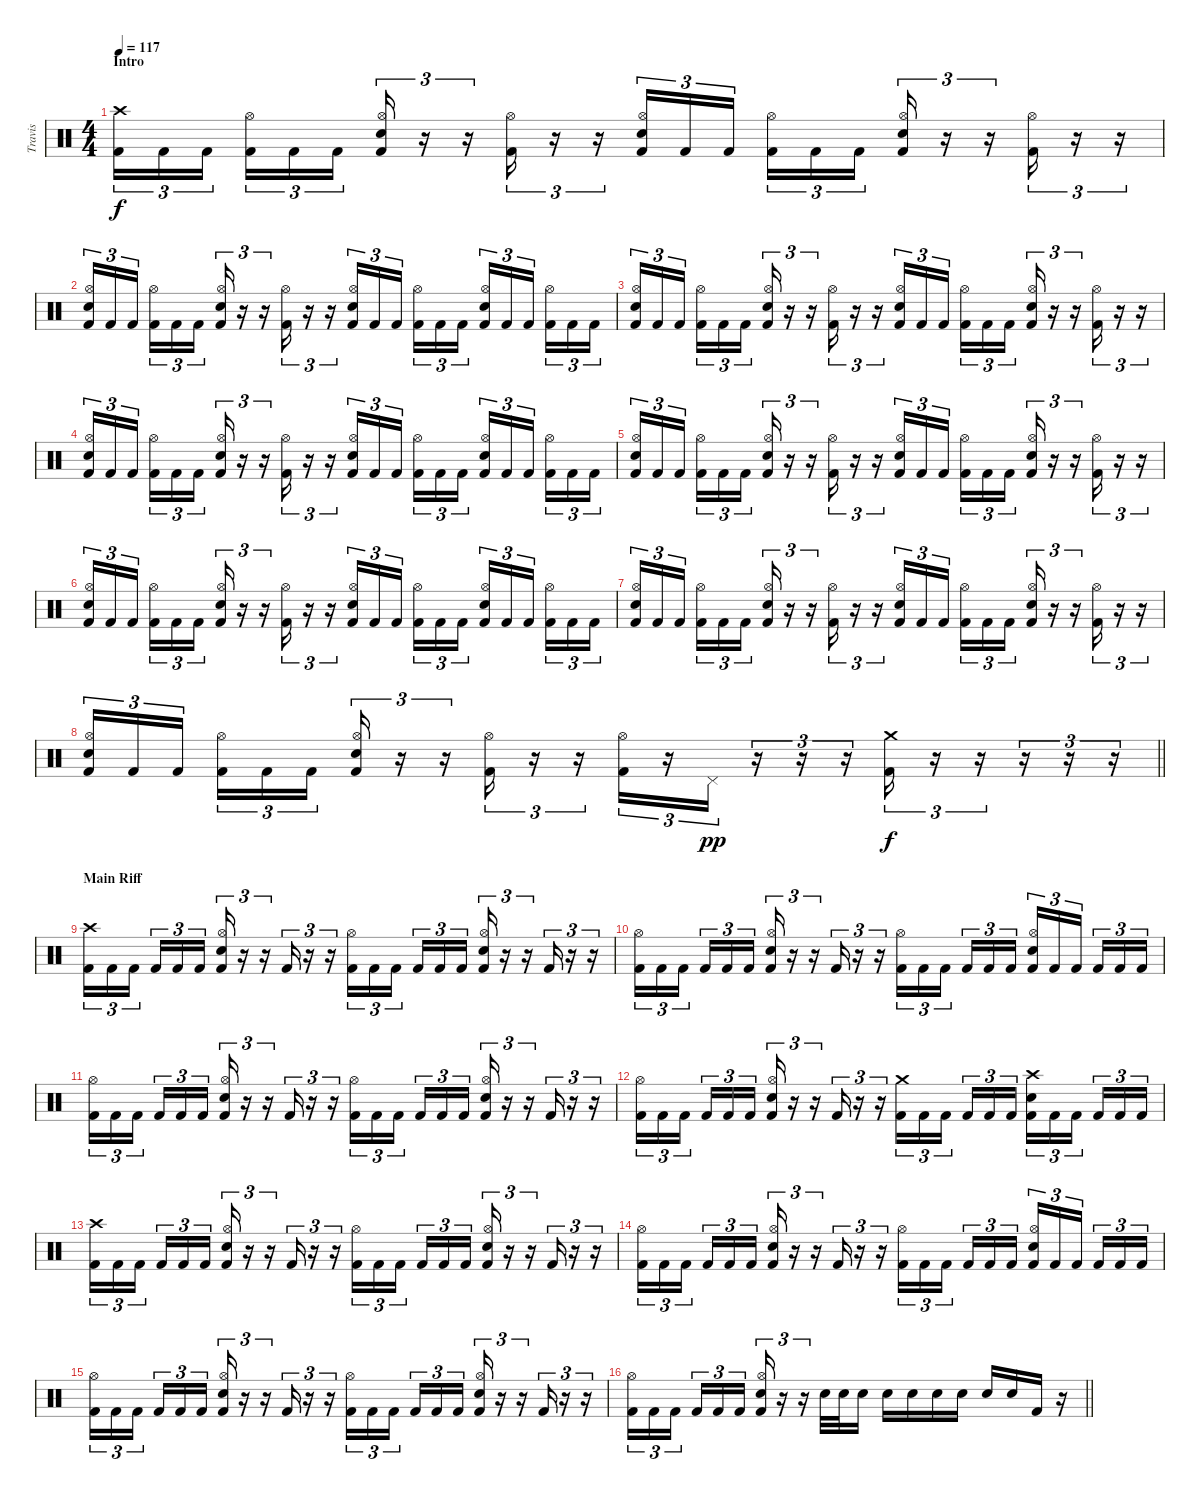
\track ("Travis" "Travis") {instrument percussion}
\staff {score}
\articulation defaults
\ts (4 4)
\section ("" "Intro")
\tempo 117
\clef neutral
\ks c
("Crash high (hit)" "Kick (hit) 2").16{tu (3 2) dy f} "Kick (hit) 2".16{tu (3 2)} "Kick (hit) 2".16{tu (3 2) beam splitsecondary} ("Hi-Hat (open)" "Kick (hit) 2").16{tu (3 2)} "Kick (hit) 2".16{tu (3 2)} "Kick (hit) 2".16{tu (3 2)} ("Hi-Hat (open)" "Electric Snare (hit)" "Kick (hit) 2").16{tu (3 2)} r.16{tu (3 2)} r.16{tu (3 2)} ("Hi-Hat (open)" "Kick (hit) 2").16{tu (3 2)} r.16{tu (3 2)} r.16{tu (3 2)} ("Hi-Hat (open)" "Electric Snare (hit)" "Kick (hit) 2").16{tu (3 2)} "Kick (hit) 2".16{tu (3 2)} "Kick (hit) 2".16{tu (3 2) beam splitsecondary} ("Hi-Hat (open)" "Kick (hit) 2").16{tu (3 2)} "Kick (hit) 2".16{tu (3 2)} "Kick (hit) 2".16{tu (3 2)} ("Hi-Hat (open)" "Electric Snare (hit)" "Kick (hit) 2").16{tu (3 2)} r.16{tu (3 2)} r.16{tu (3 2)} ("Hi-Hat (open)" "Kick (hit) 2").16{tu (3 2)} r.16{tu (3 2)} r.16{tu (3 2)} |
("Hi-Hat (open)" "Electric Snare (hit)" "Kick (hit) 2").16{tu (3 2)} "Kick (hit) 2".16{tu (3 2)} "Kick (hit) 2".16{tu (3 2) beam splitsecondary} ("Hi-Hat (open)" "Kick (hit) 2").16{tu (3 2)} "Kick (hit) 2".16{tu (3 2)} "Kick (hit) 2".16{tu (3 2)} ("Hi-Hat (open)" "Electric Snare (hit)" "Kick (hit) 2").16{tu (3 2)} r.16{tu (3 2)} r.16{tu (3 2)} ("Hi-Hat (open)" "Kick (hit) 2").16{tu (3 2)} r.16{tu (3 2)} r.16{tu (3 2)} ("Hi-Hat (open)" "Electric Snare (hit)" "Kick (hit) 2").16{tu (3 2)} "Kick (hit) 2".16{tu (3 2)} "Kick (hit) 2".16{tu (3 2) beam splitsecondary} ("Hi-Hat (open)" "Kick (hit) 2").16{tu (3 2)} "Kick (hit) 2".16{tu (3 2)} "Kick (hit) 2".16{tu (3 2)} ("Hi-Hat (open)" "Electric Snare (hit)" "Kick (hit) 2").16{tu (3 2)} "Kick (hit) 2".16{tu (3 2)} "Kick (hit) 2".16{tu (3 2) beam splitsecondary} ("Hi-Hat (open)" "Kick (hit) 2").16{tu (3 2)} "Kick (hit) 2".16{tu (3 2)} "Kick (hit) 2".16{tu (3 2)} |
("Hi-Hat (open)" "Electric Snare (hit)" "Kick (hit) 2").16{tu (3 2)} "Kick (hit) 2".16{tu (3 2)} "Kick (hit) 2".16{tu (3 2) beam splitsecondary} ("Hi-Hat (open)" "Kick (hit) 2").16{tu (3 2)} "Kick (hit) 2".16{tu (3 2)} "Kick (hit) 2".16{tu (3 2)} ("Hi-Hat (open)" "Electric Snare (hit)" "Kick (hit) 2").16{tu (3 2)} r.16{tu (3 2)} r.16{tu (3 2)} ("Hi-Hat (open)" "Kick (hit) 2").16{tu (3 2)} r.16{tu (3 2)} r.16{tu (3 2)} ("Hi-Hat (open)" "Electric Snare (hit)" "Kick (hit) 2").16{tu (3 2)} "Kick (hit) 2".16{tu (3 2)} "Kick (hit) 2".16{tu (3 2) beam splitsecondary} ("Hi-Hat (open)" "Kick (hit) 2").16{tu (3 2)} "Kick (hit) 2".16{tu (3 2)} "Kick (hit) 2".16{tu (3 2)} ("Hi-Hat (open)" "Electric Snare (hit)" "Kick (hit) 2").16{tu (3 2)} r.16{tu (3 2)} r.16{tu (3 2)} ("Hi-Hat (open)" "Kick (hit) 2").16{tu (3 2)} r.16{tu (3 2)} r.16{tu (3 2)} |
("Hi-Hat (open)" "Electric Snare (hit)" "Kick (hit) 2").16{tu (3 2)} "Kick (hit) 2".16{tu (3 2)} "Kick (hit) 2".16{tu (3 2) beam splitsecondary} ("Hi-Hat (open)" "Kick (hit) 2").16{tu (3 2)} "Kick (hit) 2".16{tu (3 2)} "Kick (hit) 2".16{tu (3 2)} ("Hi-Hat (open)" "Electric Snare (hit)" "Kick (hit) 2").16{tu (3 2)} r.16{tu (3 2)} r.16{tu (3 2)} ("Hi-Hat (open)" "Kick (hit) 2").16{tu (3 2)} r.16{tu (3 2)} r.16{tu (3 2)} ("Hi-Hat (open)" "Electric Snare (hit)" "Kick (hit) 2").16{tu (3 2)} "Kick (hit) 2".16{tu (3 2)} "Kick (hit) 2".16{tu (3 2) beam splitsecondary} ("Hi-Hat (open)" "Kick (hit) 2").16{tu (3 2)} "Kick (hit) 2".16{tu (3 2)} "Kick (hit) 2".16{tu (3 2)} ("Hi-Hat (open)" "Electric Snare (hit)" "Kick (hit) 2").16{tu (3 2)} "Kick (hit) 2".16{tu (3 2)} "Kick (hit) 2".16{tu (3 2) beam splitsecondary} ("Hi-Hat (open)" "Kick (hit) 2").16{tu (3 2)} "Kick (hit) 2".16{tu (3 2)} "Kick (hit) 2".16{tu (3 2)} |
("Hi-Hat (open)" "Electric Snare (hit)" "Kick (hit) 2").16{tu (3 2)} "Kick (hit) 2".16{tu (3 2)} "Kick (hit) 2".16{tu (3 2) beam splitsecondary} ("Hi-Hat (open)" "Kick (hit) 2").16{tu (3 2)} "Kick (hit) 2".16{tu (3 2)} "Kick (hit) 2".16{tu (3 2)} ("Hi-Hat (open)" "Electric Snare (hit)" "Kick (hit) 2").16{tu (3 2)} r.16{tu (3 2)} r.16{tu (3 2)} ("Hi-Hat (open)" "Kick (hit) 2").16{tu (3 2)} r.16{tu (3 2)} r.16{tu (3 2)} ("Hi-Hat (open)" "Electric Snare (hit)" "Kick (hit) 2").16{tu (3 2)} "Kick (hit) 2".16{tu (3 2)} "Kick (hit) 2".16{tu (3 2) beam splitsecondary} ("Hi-Hat (open)" "Kick (hit) 2").16{tu (3 2)} "Kick (hit) 2".16{tu (3 2)} "Kick (hit) 2".16{tu (3 2)} ("Hi-Hat (open)" "Electric Snare (hit)" "Kick (hit) 2").16{tu (3 2)} r.16{tu (3 2)} r.16{tu (3 2)} ("Hi-Hat (open)" "Kick (hit) 2").16{tu (3 2)} r.16{tu (3 2)} r.16{tu (3 2)} |
("Hi-Hat (open)" "Electric Snare (hit)" "Kick (hit) 2").16{tu (3 2)} "Kick (hit) 2".16{tu (3 2)} "Kick (hit) 2".16{tu (3 2) beam splitsecondary} ("Hi-Hat (open)" "Kick (hit) 2").16{tu (3 2)} "Kick (hit) 2".16{tu (3 2)} "Kick (hit) 2".16{tu (3 2)} ("Hi-Hat (open)" "Electric Snare (hit)" "Kick (hit) 2").16{tu (3 2)} r.16{tu (3 2)} r.16{tu (3 2)} ("Hi-Hat (open)" "Kick (hit) 2").16{tu (3 2)} r.16{tu (3 2)} r.16{tu (3 2)} ("Hi-Hat (open)" "Electric Snare (hit)" "Kick (hit) 2").16{tu (3 2)} "Kick (hit) 2".16{tu (3 2)} "Kick (hit) 2".16{tu (3 2) beam splitsecondary} ("Hi-Hat (open)" "Kick (hit) 2").16{tu (3 2)} "Kick (hit) 2".16{tu (3 2)} "Kick (hit) 2".16{tu (3 2)} ("Hi-Hat (open)" "Electric Snare (hit)" "Kick (hit) 2").16{tu (3 2)} "Kick (hit) 2".16{tu (3 2)} "Kick (hit) 2".16{tu (3 2) beam splitsecondary} ("Hi-Hat (open)" "Kick (hit) 2").16{tu (3 2)} "Kick (hit) 2".16{tu (3 2)} "Kick (hit) 2".16{tu (3 2)} |
("Hi-Hat (open)" "Electric Snare (hit)" "Kick (hit) 2").16{tu (3 2)} "Kick (hit) 2".16{tu (3 2)} "Kick (hit) 2".16{tu (3 2) beam splitsecondary} ("Hi-Hat (open)" "Kick (hit) 2").16{tu (3 2)} "Kick (hit) 2".16{tu (3 2)} "Kick (hit) 2".16{tu (3 2)} ("Hi-Hat (open)" "Electric Snare (hit)" "Kick (hit) 2").16{tu (3 2)} r.16{tu (3 2)} r.16{tu (3 2)} ("Hi-Hat (open)" "Kick (hit) 2").16{tu (3 2)} r.16{tu (3 2)} r.16{tu (3 2)} ("Hi-Hat (open)" "Electric Snare (hit)" "Kick (hit) 2").16{tu (3 2)} "Kick (hit) 2".16{tu (3 2)} "Kick (hit) 2".16{tu (3 2) beam splitsecondary} ("Hi-Hat (open)" "Kick (hit) 2").16{tu (3 2)} "Kick (hit) 2".16{tu (3 2)} "Kick (hit) 2".16{tu (3 2)} ("Hi-Hat (open)" "Electric Snare (hit)" "Kick (hit) 2").16{tu (3 2)} r.16{tu (3 2)} r.16{tu (3 2)} ("Hi-Hat (open)" "Kick (hit) 2").16{tu (3 2)} r.16{tu (3 2)} r.16{tu (3 2)} |
\barLineRight lightlight
("Hi-Hat (open)" "Electric Snare (hit)" "Kick (hit) 2").16{tu (3 2)} "Kick (hit) 2".16{tu (3 2)} "Kick (hit) 2".16{tu (3 2) beam splitsecondary} ("Hi-Hat (open)" "Kick (hit) 2").16{tu (3 2)} "Kick (hit) 2".16{tu (3 2)} "Kick (hit) 2".16{tu (3 2)} ("Hi-Hat (open)" "Electric Snare (hit)" "Kick (hit) 2").16{tu (3 2)} r.16{tu (3 2)} r.16{tu (3 2)} ("Hi-Hat (open)" "Kick (hit) 2").16{tu (3 2)} r.16{tu (3 2)} r.16{tu (3 2)} ("Hi-Hat (open)" "Kick (hit) 2").16{tu (3 2)} r.16{tu (3 2)} "Pedal Hi-Hat (hit)".16{tu (3 2) dy pp} r.16{tu (3 2)} r.16{tu (3 2)} r.16{tu (3 2)} ("Crash medium (hit)" "Kick (hit) 2").16{tu (3 2) dy f} r.16{tu (3 2)} r.16{tu (3 2)} r.16{tu (3 2)} r.16{tu (3 2)} r.16{tu (3 2)} |
\section ("" "Main Riff")
("Crash high (hit)" "Kick (hit) 2").16{tu (3 2)} "Kick (hit) 2".16{tu (3 2)} "Kick (hit) 2".16{tu (3 2) beam splitsecondary} "Kick (hit) 2".16{tu (3 2)} "Kick (hit) 2".16{tu (3 2)} "Kick (hit) 2".16{tu (3 2)} ("Hi-Hat (open)" "Electric Snare (hit)" "Kick (hit) 2").16{tu (3 2)} r.16{tu (3 2)} r.16{tu (3 2)} "Kick (hit) 2".16{tu (3 2)} r.16{tu (3 2)} r.16{tu (3 2)} ("Hi-Hat (open)" "Kick (hit) 2").16{tu (3 2)} "Kick (hit) 2".16{tu (3 2)} "Kick (hit) 2".16{tu (3 2) beam splitsecondary} "Kick (hit) 2".16{tu (3 2)} "Kick (hit) 2".16{tu (3 2)} "Kick (hit) 2".16{tu (3 2)} ("Hi-Hat (open)" "Electric Snare (hit)" "Kick (hit) 2").16{tu (3 2)} r.16{tu (3 2)} r.16{tu (3 2)} "Kick (hit) 2".16{tu (3 2)} r.16{tu (3 2)} r.16{tu (3 2)} |
("Hi-Hat (open)" "Kick (hit) 2").16{tu (3 2)} "Kick (hit) 2".16{tu (3 2)} "Kick (hit) 2".16{tu (3 2) beam splitsecondary} "Kick (hit) 2".16{tu (3 2)} "Kick (hit) 2".16{tu (3 2)} "Kick (hit) 2".16{tu (3 2)} ("Hi-Hat (open)" "Electric Snare (hit)" "Kick (hit) 2").16{tu (3 2)} r.16{tu (3 2)} r.16{tu (3 2)} "Kick (hit) 2".16{tu (3 2)} r.16{tu (3 2)} r.16{tu (3 2)} ("Hi-Hat (open)" "Kick (hit) 2").16{tu (3 2)} "Kick (hit) 2".16{tu (3 2)} "Kick (hit) 2".16{tu (3 2) beam splitsecondary} "Kick (hit) 2".16{tu (3 2)} "Kick (hit) 2".16{tu (3 2)} "Kick (hit) 2".16{tu (3 2)} ("Hi-Hat (open)" "Electric Snare (hit)" "Kick (hit) 2").16{tu (3 2)} "Kick (hit) 2".16{tu (3 2)} "Kick (hit) 2".16{tu (3 2) beam splitsecondary} "Kick (hit) 2".16{tu (3 2)} "Kick (hit) 2".16{tu (3 2)} "Kick (hit) 2".16{tu (3 2)} |
("Hi-Hat (open)" "Kick (hit) 2").16{tu (3 2)} "Kick (hit) 2".16{tu (3 2)} "Kick (hit) 2".16{tu (3 2) beam splitsecondary} "Kick (hit) 2".16{tu (3 2)} "Kick (hit) 2".16{tu (3 2)} "Kick (hit) 2".16{tu (3 2)} ("Hi-Hat (open)" "Electric Snare (hit)" "Kick (hit) 2").16{tu (3 2)} r.16{tu (3 2)} r.16{tu (3 2)} "Kick (hit) 2".16{tu (3 2)} r.16{tu (3 2)} r.16{tu (3 2)} ("Hi-Hat (open)" "Kick (hit) 2").16{tu (3 2)} "Kick (hit) 2".16{tu (3 2)} "Kick (hit) 2".16{tu (3 2) beam splitsecondary} "Kick (hit) 2".16{tu (3 2)} "Kick (hit) 2".16{tu (3 2)} "Kick (hit) 2".16{tu (3 2)} ("Hi-Hat (open)" "Electric Snare (hit)" "Kick (hit) 2").16{tu (3 2)} r.16{tu (3 2)} r.16{tu (3 2)} "Kick (hit) 2".16{tu (3 2)} r.16{tu (3 2)} r.16{tu (3 2)} |
("Hi-Hat (open)" "Kick (hit) 2").16{tu (3 2)} "Kick (hit) 2".16{tu (3 2)} "Kick (hit) 2".16{tu (3 2) beam splitsecondary} "Kick (hit) 2".16{tu (3 2)} "Kick (hit) 2".16{tu (3 2)} "Kick (hit) 2".16{tu (3 2)} ("Hi-Hat (open)" "Electric Snare (hit)" "Kick (hit) 2").16{tu (3 2)} r.16{tu (3 2)} r.16{tu (3 2)} "Kick (hit) 2".16{tu (3 2)} r.16{tu (3 2)} r.16{tu (3 2)} ("Crash medium (hit)" "Kick (hit) 2").16{tu (3 2)} "Kick (hit) 2".16{tu (3 2)} "Kick (hit) 2".16{tu (3 2) beam splitsecondary} "Kick (hit) 2".16{tu (3 2)} "Kick (hit) 2".16{tu (3 2)} "Kick (hit) 2".16{tu (3 2)} ("Crash high (hit)" "Electric Snare (hit)" "Kick (hit) 2").16{tu (3 2)} "Kick (hit) 2".16{tu (3 2)} "Kick (hit) 2".16{tu (3 2) beam splitsecondary} "Kick (hit) 2".16{tu (3 2)} "Kick (hit) 2".16{tu (3 2)} "Kick (hit) 2".16{tu (3 2)} |
("Crash high (hit)" "Kick (hit) 2").16{tu (3 2)} "Kick (hit) 2".16{tu (3 2)} "Kick (hit) 2".16{tu (3 2) beam splitsecondary} "Kick (hit) 2".16{tu (3 2)} "Kick (hit) 2".16{tu (3 2)} "Kick (hit) 2".16{tu (3 2)} ("Hi-Hat (open)" "Electric Snare (hit)" "Kick (hit) 2").16{tu (3 2)} r.16{tu (3 2)} r.16{tu (3 2)} "Kick (hit) 2".16{tu (3 2)} r.16{tu (3 2)} r.16{tu (3 2)} ("Hi-Hat (open)" "Kick (hit) 2").16{tu (3 2)} "Kick (hit) 2".16{tu (3 2)} "Kick (hit) 2".16{tu (3 2) beam splitsecondary} "Kick (hit) 2".16{tu (3 2)} "Kick (hit) 2".16{tu (3 2)} "Kick (hit) 2".16{tu (3 2)} ("Hi-Hat (open)" "Electric Snare (hit)" "Kick (hit) 2").16{tu (3 2)} r.16{tu (3 2)} r.16{tu (3 2)} "Kick (hit) 2".16{tu (3 2)} r.16{tu (3 2)} r.16{tu (3 2)} |
("Hi-Hat (open)" "Kick (hit) 2").16{tu (3 2)} "Kick (hit) 2".16{tu (3 2)} "Kick (hit) 2".16{tu (3 2) beam splitsecondary} "Kick (hit) 2".16{tu (3 2)} "Kick (hit) 2".16{tu (3 2)} "Kick (hit) 2".16{tu (3 2)} ("Hi-Hat (open)" "Electric Snare (hit)" "Kick (hit) 2").16{tu (3 2)} r.16{tu (3 2)} r.16{tu (3 2)} "Kick (hit) 2".16{tu (3 2)} r.16{tu (3 2)} r.16{tu (3 2)} ("Hi-Hat (open)" "Kick (hit) 2").16{tu (3 2)} "Kick (hit) 2".16{tu (3 2)} "Kick (hit) 2".16{tu (3 2) beam splitsecondary} "Kick (hit) 2".16{tu (3 2)} "Kick (hit) 2".16{tu (3 2)} "Kick (hit) 2".16{tu (3 2)} ("Hi-Hat (open)" "Electric Snare (hit)" "Kick (hit) 2").16{tu (3 2)} "Kick (hit) 2".16{tu (3 2)} "Kick (hit) 2".16{tu (3 2) beam splitsecondary} "Kick (hit) 2".16{tu (3 2)} "Kick (hit) 2".16{tu (3 2)} "Kick (hit) 2".16{tu (3 2)} |
("Hi-Hat (open)" "Kick (hit) 2").16{tu (3 2)} "Kick (hit) 2".16{tu (3 2)} "Kick (hit) 2".16{tu (3 2) beam splitsecondary} "Kick (hit) 2".16{tu (3 2)} "Kick (hit) 2".16{tu (3 2)} "Kick (hit) 2".16{tu (3 2)} ("Hi-Hat (open)" "Electric Snare (hit)" "Kick (hit) 2").16{tu (3 2)} r.16{tu (3 2)} r.16{tu (3 2)} "Kick (hit) 2".16{tu (3 2)} r.16{tu (3 2)} r.16{tu (3 2)} ("Hi-Hat (open)" "Kick (hit) 2").16{tu (3 2)} "Kick (hit) 2".16{tu (3 2)} "Kick (hit) 2".16{tu (3 2) beam splitsecondary} "Kick (hit) 2".16{tu (3 2)} "Kick (hit) 2".16{tu (3 2)} "Kick (hit) 2".16{tu (3 2)} ("Hi-Hat (open)" "Electric Snare (hit)" "Kick (hit) 2").16{tu (3 2)} r.16{tu (3 2)} r.16{tu (3 2)} "Kick (hit) 2".16{tu (3 2)} r.16{tu (3 2)} r.16{tu (3 2)} |
\barLineRight lightlight
("Hi-Hat (open)" "Kick (hit) 2").16{tu (3 2)} "Kick (hit) 2".16{tu (3 2)} "Kick (hit) 2".16{tu (3 2) beam splitsecondary} "Kick (hit) 2".16{tu (3 2)} "Kick (hit) 2".16{tu (3 2)} "Kick (hit) 2".16{tu (3 2)} ("Hi-Hat (open)" "Electric Snare (hit)" "Kick (hit) 2").16{tu (3 2)} r.16{tu (3 2)} r.16{tu (3 2)} "Electric Snare (hit)".32 "Electric Snare (hit)".32 "Electric Snare (hit)".16 "Electric Snare (hit)".16 "Electric Snare (hit)".16 "Electric Snare (hit)".16 "Electric Snare (hit)".16 "Electric Snare (hit)".16 "Electric Snare (hit)".16 "Kick (hit) 2".16 r.16
